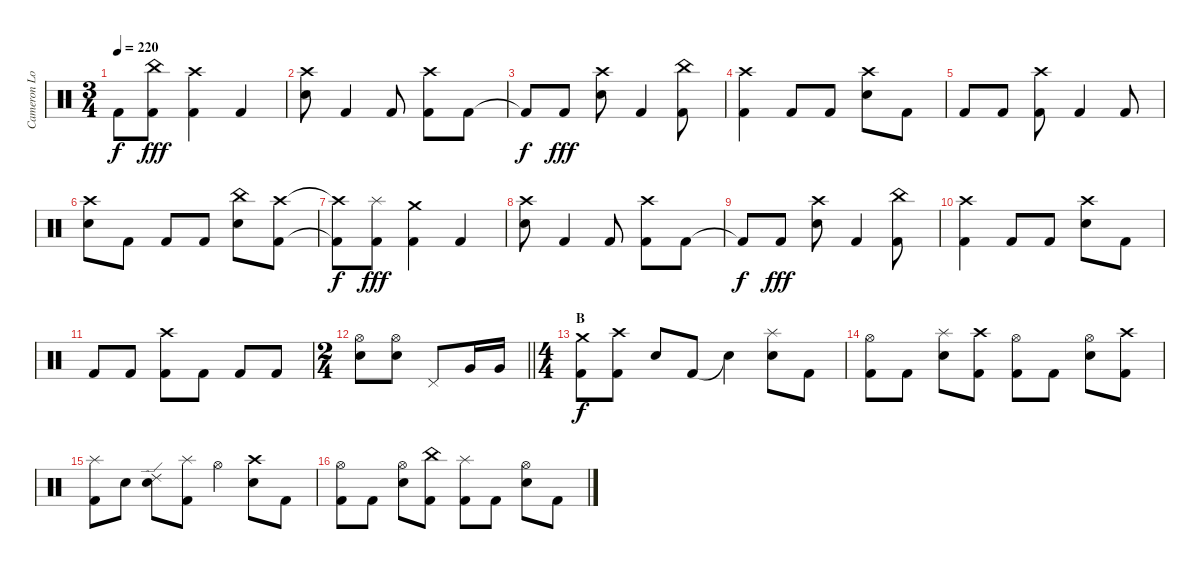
\track ("Cameron Losch - Drums" "Cameron Lo") {instrument percussion}
\staff {score}
\articulation defaults
\ts (3 4)
\tempo 220
\clef neutral
\ks c "Kick (hit) 2"{t}.8{dy f}
("China (hit)" "Kick (hit) 2").8{dy fff} ("Crash high (hit)" "Kick (hit) 2").4 "Kick (hit) 2".4 |
("Crash high (hit)" "Electric Snare (hit)").8 "Kick (hit) 2".4 "Kick (hit) 2".8 ("Crash high (hit)" "Kick (hit) 2").8 "Kick (hit) 2".8 |
"Kick (hit) 2"{t}.8{dy f} "Kick (hit) 2".8{dy fff} ("Crash high (hit)" "Electric Snare (hit)").8 "Kick (hit) 2".4 ("China (hit)" "Kick (hit) 2").8 |
("Crash high (hit)" "Kick (hit) 2").4 "Kick (hit) 2".8 "Kick (hit) 2".8 ("Crash high (hit)" "Electric Snare (hit)").8 "Kick (hit) 2".8 |
"Kick (hit) 2".8 "Kick (hit) 2".8 ("Crash high (hit)" "Kick (hit) 2").8 "Kick (hit) 2".4 "Kick (hit) 2".8 |
("Crash high (hit)" "Electric Snare (hit)").8 "Kick (hit) 2".8 "Kick (hit) 2".8 "Kick (hit) 2".8 ("China (hit)" "Electric Snare (hit)").8 ("Crash high (hit)" "Kick (hit) 2").8 |
("Crash high (hit)"{t} "Kick (hit) 2"{t}).8{dy f} ("Splash (hit)" "Kick (hit) 2").8{dy fff} ("Crash medium (hit)" "Kick (hit) 2").4 "Kick (hit) 2".4 |
("Crash high (hit)" "Electric Snare (hit)").8 "Kick (hit) 2".4 "Kick (hit) 2".8 ("Crash high (hit)" "Kick (hit) 2").8 "Kick (hit) 2".8 |
"Kick (hit) 2"{t}.8{dy f} "Kick (hit) 2".8{dy fff} ("Crash high (hit)" "Electric Snare (hit)").8 "Kick (hit) 2".4 ("China (hit)" "Kick (hit) 2").8 |
("Crash high (hit)" "Kick (hit) 2").4 "Kick (hit) 2".8 "Kick (hit) 2".8 ("Crash high (hit)" "Electric Snare (hit)").8 "Kick (hit) 2".8 |
"Kick (hit) 2".8 "Kick (hit) 2".8 ("Crash high (hit)" "Kick (hit) 2").8 "Kick (hit) 2".8 "Kick (hit) 2".8 "Kick (hit) 2".8 |
\ts (2 4)
\barLineRight lightlight
("Hi-Hat (open)" "Electric Snare (hit)").8 ("Hi-Hat (open)" "Electric Snare (hit)").8 "Pedal Hi-Hat (hit)".8 "Very Low Tom (hit)".16 "Very Low Tom (hit)".16 |
\ts (4 4)
\section ("" "B")
("Kick (hit) 2" "Crash medium (hit)").8{dy f} ("Kick (hit) 2" "Crash high (hit)").8 "Electric Snare (hit)".8 "Kick (hit) 2".8 "Snare (hit)"{t}.4 ("Electric Snare (hit)" "Splash (hit)").8 "Kick (hit) 2".8 |
("Kick (hit) 2" "Hi-Hat (open)").8 "Kick (hit) 2".8 ("Electric Snare (hit)" "Splash (hit)").8 ("Kick (hit) 2" "Crash high (hit)").8 ("Kick (hit) 2" "Hi-Hat (open)").8 "Kick (hit) 2".8 ("Electric Snare (hit)" "Hi-Hat (open)").8 ("Kick (hit) 2" "Crash high (hit)").8 |
("Kick (hit) 2" "Splash (hit)").8 "Electric Snare (hit)".8 ("Electric Snare (hit)" "Ride (edge) 2").8 ("Kick (hit) 2" "Splash (hit)").8 "Hi-Hat (open)".4 ("Crash high (hit)" "Electric Snare (hit)").8 "Kick (hit) 2".8 |
("Hi-Hat (open)" "Kick (hit) 2").8 "Kick (hit) 2".8 ("Hi-Hat (open)" "Electric Snare (hit)").8 ("China (hit)" "Kick (hit) 2").8 ("Splash (hit)" "Kick (hit) 2").8 "Kick (hit) 2".8 ("Hi-Hat (open)" "Electric Snare (hit)").8 "Kick (hit) 2".8
